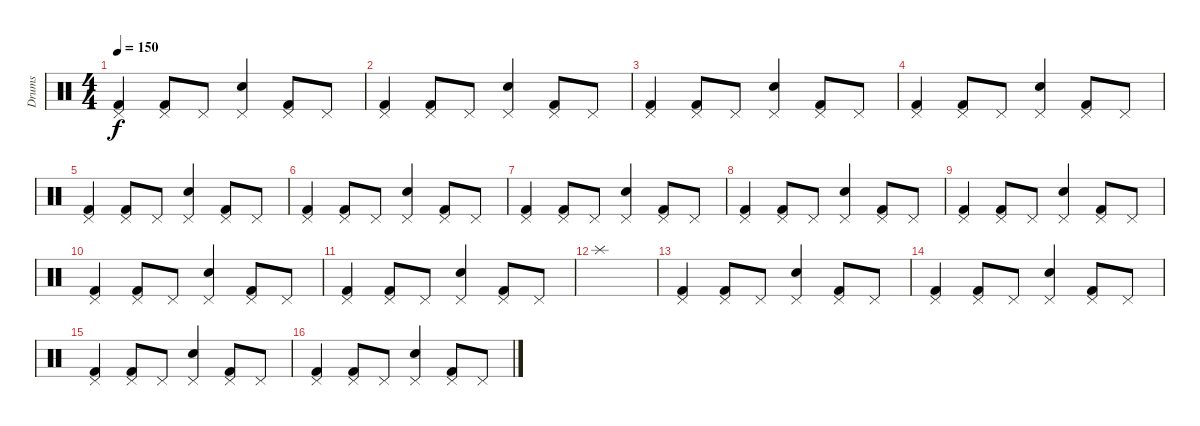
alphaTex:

\track ("Drums" "Drums") {instrument percussion}
\staff {score}
\articulation defaults
\ts (4 4)
\tempo 150
\clef neutral
\ks c
("Pedal Hi-Hat (hit)" "Kick (hit) 2").4{dy f} ("Pedal Hi-Hat (hit)" "Kick (hit) 2").8 "Pedal Hi-Hat (hit)".8 ("Pedal Hi-Hat (hit)" "Snare (hit) 2").4 ("Pedal Hi-Hat (hit)" "Kick (hit) 2").8 "Pedal Hi-Hat (hit)".8 |
("Pedal Hi-Hat (hit)" "Kick (hit) 2").4 ("Pedal Hi-Hat (hit)" "Kick (hit) 2").8 "Pedal Hi-Hat (hit)".8 ("Pedal Hi-Hat (hit)" "Snare (hit) 2").4 ("Pedal Hi-Hat (hit)" "Kick (hit) 2").8 "Pedal Hi-Hat (hit)".8 |
("Pedal Hi-Hat (hit)" "Kick (hit) 2").4 ("Pedal Hi-Hat (hit)" "Kick (hit) 2").8 "Pedal Hi-Hat (hit)".8 ("Pedal Hi-Hat (hit)" "Snare (hit) 2").4 ("Pedal Hi-Hat (hit)" "Kick (hit) 2").8 "Pedal Hi-Hat (hit)".8 |
("Pedal Hi-Hat (hit)" "Kick (hit) 2").4 ("Pedal Hi-Hat (hit)" "Kick (hit) 2").8 "Pedal Hi-Hat (hit)".8 ("Pedal Hi-Hat (hit)" "Snare (hit) 2").4 ("Pedal Hi-Hat (hit)" "Kick (hit) 2").8 "Pedal Hi-Hat (hit)".8 |
("Pedal Hi-Hat (hit)" "Kick (hit) 2").4 ("Pedal Hi-Hat (hit)" "Kick (hit) 2").8 "Pedal Hi-Hat (hit)".8 ("Pedal Hi-Hat (hit)" "Snare (hit) 2").4 ("Pedal Hi-Hat (hit)" "Kick (hit) 2").8 "Pedal Hi-Hat (hit)".8 |
("Pedal Hi-Hat (hit)" "Kick (hit) 2").4 ("Pedal Hi-Hat (hit)" "Kick (hit) 2").8 "Pedal Hi-Hat (hit)".8 ("Pedal Hi-Hat (hit)" "Snare (hit) 2").4 ("Pedal Hi-Hat (hit)" "Kick (hit) 2").8 "Pedal Hi-Hat (hit)".8 |
("Pedal Hi-Hat (hit)" "Kick (hit) 2").4 ("Pedal Hi-Hat (hit)" "Kick (hit) 2").8 "Pedal Hi-Hat (hit)".8 ("Pedal Hi-Hat (hit)" "Snare (hit) 2").4 ("Pedal Hi-Hat (hit)" "Kick (hit) 2").8 "Pedal Hi-Hat (hit)".8 |
("Pedal Hi-Hat (hit)" "Kick (hit) 2").4 ("Pedal Hi-Hat (hit)" "Kick (hit) 2").8 "Pedal Hi-Hat (hit)".8 ("Pedal Hi-Hat (hit)" "Snare (hit) 2").4 ("Pedal Hi-Hat (hit)" "Kick (hit) 2").8 "Pedal Hi-Hat (hit)".8 |
("Pedal Hi-Hat (hit)" "Kick (hit) 2").4 ("Pedal Hi-Hat (hit)" "Kick (hit) 2").8 "Pedal Hi-Hat (hit)".8 ("Pedal Hi-Hat (hit)" "Snare (hit) 2").4 ("Pedal Hi-Hat (hit)" "Kick (hit) 2").8 "Pedal Hi-Hat (hit)".8 |
("Pedal Hi-Hat (hit)" "Kick (hit) 2").4 ("Pedal Hi-Hat (hit)" "Kick (hit) 2").8 "Pedal Hi-Hat (hit)".8 ("Pedal Hi-Hat (hit)" "Snare (hit) 2").4 ("Pedal Hi-Hat (hit)" "Kick (hit) 2").8 "Pedal Hi-Hat (hit)".8 |
("Pedal Hi-Hat (hit)" "Kick (hit) 2").4 ("Pedal Hi-Hat (hit)" "Kick (hit) 2").8 "Pedal Hi-Hat (hit)".8 ("Pedal Hi-Hat (hit)" "Snare (hit) 2").4 ("Pedal Hi-Hat (hit)" "Kick (hit) 2").8 "Pedal Hi-Hat (hit)".8 |
"Splash (hit)".1 |
("Pedal Hi-Hat (hit)" "Kick (hit) 2").4 ("Pedal Hi-Hat (hit)" "Kick (hit) 2").8 "Pedal Hi-Hat (hit)".8 ("Pedal Hi-Hat (hit)" "Snare (hit) 2").4 ("Pedal Hi-Hat (hit)" "Kick (hit) 2").8 "Pedal Hi-Hat (hit)".8 |
("Pedal Hi-Hat (hit)" "Kick (hit) 2").4 ("Pedal Hi-Hat (hit)" "Kick (hit) 2").8 "Pedal Hi-Hat (hit)".8 ("Pedal Hi-Hat (hit)" "Snare (hit) 2").4 ("Pedal Hi-Hat (hit)" "Kick (hit) 2").8 "Pedal Hi-Hat (hit)".8 |
("Pedal Hi-Hat (hit)" "Kick (hit) 2").4 ("Pedal Hi-Hat (hit)" "Kick (hit) 2").8 "Pedal Hi-Hat (hit)".8 ("Pedal Hi-Hat (hit)" "Snare (hit) 2").4 ("Pedal Hi-Hat (hit)" "Kick (hit) 2").8 "Pedal Hi-Hat (hit)".8 |
("Pedal Hi-Hat (hit)" "Kick (hit) 2").4 ("Pedal Hi-Hat (hit)" "Kick (hit) 2").8 "Pedal Hi-Hat (hit)".8 ("Pedal Hi-Hat (hit)" "Snare (hit) 2").4 ("Pedal Hi-Hat (hit)" "Kick (hit) 2").8 "Pedal Hi-Hat (hit)".8
